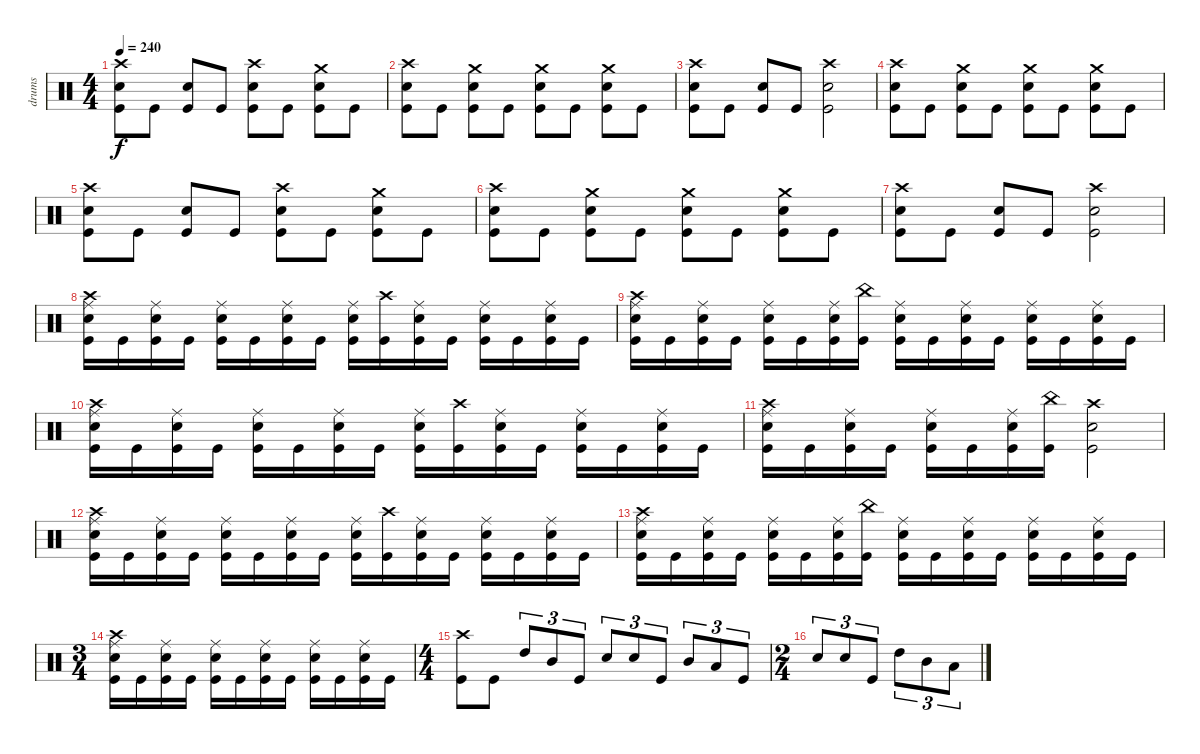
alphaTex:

\track ("drums" "drums") {instrument percussion}
\staff {score}
\articulation defaults
\ts (4 4)
\tempo 240
\clef neutral
\ks c
("Crash high (hit)" "Electric Snare (hit)" "Kick (hit)").8{dy f} "Kick (hit)".8 ("Electric Snare (hit)" "Kick (hit)").8 "Kick (hit)".8 ("Crash high (hit)" "Electric Snare (hit)" "Kick (hit)").8 "Kick (hit)".8 ("Crash medium (hit)" "Electric Snare (hit)" "Kick (hit)").8 "Kick (hit)".8 |
("Crash high (hit)" "Electric Snare (hit)" "Kick (hit)").8 "Kick (hit)".8 ("Crash medium (hit)" "Electric Snare (hit)" "Kick (hit)").8 "Kick (hit)".8 ("Crash medium (hit)" "Electric Snare (hit)" "Kick (hit)").8 "Kick (hit)".8 ("Crash medium (hit)" "Electric Snare (hit)" "Kick (hit)").8 "Kick (hit)".8 |
("Crash high (hit)" "Electric Snare (hit)" "Kick (hit)").8 "Kick (hit)".8 ("Electric Snare (hit)" "Kick (hit)").8 "Kick (hit)".8 ("Crash high (hit)" "Electric Snare (hit)" "Kick (hit)").2 |
("Crash high (hit)" "Electric Snare (hit)" "Kick (hit)").8 "Kick (hit)".8 ("Crash medium (hit)" "Electric Snare (hit)" "Kick (hit)").8 "Kick (hit)".8 ("Crash medium (hit)" "Electric Snare (hit)" "Kick (hit)").8 "Kick (hit)".8 ("Crash medium (hit)" "Electric Snare (hit)" "Kick (hit)").8 "Kick (hit)".8 |
("Crash high (hit)" "Electric Snare (hit)" "Kick (hit)").8 "Kick (hit)".8 ("Electric Snare (hit)" "Kick (hit)").8 "Kick (hit)".8 ("Crash high (hit)" "Electric Snare (hit)" "Kick (hit)").8 "Kick (hit)".8 ("Crash medium (hit)" "Electric Snare (hit)" "Kick (hit)").8 "Kick (hit)".8 |
("Crash high (hit)" "Electric Snare (hit)" "Kick (hit)").8 "Kick (hit)".8 ("Crash medium (hit)" "Electric Snare (hit)" "Kick (hit)").8 "Kick (hit)".8 ("Crash medium (hit)" "Electric Snare (hit)" "Kick (hit)").8 "Kick (hit)".8 ("Crash medium (hit)" "Electric Snare (hit)" "Kick (hit)").8 "Kick (hit)".8 |
("Crash high (hit)" "Electric Snare (hit)" "Kick (hit)").8 "Kick (hit)".8 ("Electric Snare (hit)" "Kick (hit)").8 "Kick (hit)".8 ("Crash high (hit)" "Electric Snare (hit)" "Kick (hit)").2 |
("Crash high (hit)" "Ride (middle)" "Electric Snare (hit)" "Kick (hit)").16 "Kick (hit)".16 ("Ride (middle)" "Electric Snare (hit)" "Kick (hit)").16 "Kick (hit)".16 ("Ride (middle)" "Electric Snare (hit)" "Kick (hit)").16 "Kick (hit)".16 ("Ride (middle)" "Electric Snare (hit)" "Kick (hit)").16 "Kick (hit)".16 ("Ride (middle)" "Electric Snare (hit)" "Kick (hit)").16 ("Crash high (hit)" "Kick (hit)").16 ("Ride (middle)" "Electric Snare (hit)" "Kick (hit)").16 "Kick (hit)".16 ("Ride (middle)" "Electric Snare (hit)" "Kick (hit)").16 "Kick (hit)".16 ("Ride (middle)" "Electric Snare (hit)" "Kick (hit)").16 "Kick (hit)".16 |
("Crash high (hit)" "Ride (middle)" "Electric Snare (hit)" "Kick (hit)").16 "Kick (hit)".16 ("Ride (middle)" "Electric Snare (hit)" "Kick (hit)").16 "Kick (hit)".16 ("Ride (middle)" "Electric Snare (hit)" "Kick (hit)").16 "Kick (hit)".16 ("Ride (middle)" "Electric Snare (hit)" "Kick (hit)").16 ("China (hit)" "Kick (hit)").16 ("Ride (middle)" "Electric Snare (hit)" "Kick (hit)").16 "Kick (hit)".16 ("Ride (middle)" "Electric Snare (hit)" "Kick (hit)").16 "Kick (hit)".16 ("Ride (middle)" "Electric Snare (hit)" "Kick (hit)").16 "Kick (hit)".16 ("Ride (middle)" "Electric Snare (hit)" "Kick (hit)").16 "Kick (hit)".16 |
("Crash high (hit)" "Ride (middle)" "Electric Snare (hit)" "Kick (hit)").16 "Kick (hit)".16 ("Ride (middle)" "Electric Snare (hit)" "Kick (hit)").16 "Kick (hit)".16 ("Ride (middle)" "Electric Snare (hit)" "Kick (hit)").16 "Kick (hit)".16 ("Ride (middle)" "Electric Snare (hit)" "Kick (hit)").16 "Kick (hit)".16 ("Ride (middle)" "Electric Snare (hit)" "Kick (hit)").16 ("Crash high (hit)" "Kick (hit)").16 ("Ride (middle)" "Electric Snare (hit)" "Kick (hit)").16 "Kick (hit)".16 ("Ride (middle)" "Electric Snare (hit)" "Kick (hit)").16 "Kick (hit)".16 ("Ride (middle)" "Electric Snare (hit)" "Kick (hit)").16 "Kick (hit)".16 |
("Crash high (hit)" "Ride (middle)" "Electric Snare (hit)" "Kick (hit)").16 "Kick (hit)".16 ("Ride (middle)" "Electric Snare (hit)" "Kick (hit)").16 "Kick (hit)".16 ("Ride (middle)" "Electric Snare (hit)" "Kick (hit)").16 "Kick (hit)".16 ("Ride (middle)" "Electric Snare (hit)" "Kick (hit)").16 ("China (hit)" "Kick (hit)").16 ("Crash high (hit)" "Electric Snare (hit)" "Kick (hit)").2 |
("Crash high (hit)" "Ride (middle)" "Electric Snare (hit)" "Kick (hit)").16 "Kick (hit)".16 ("Ride (middle)" "Electric Snare (hit)" "Kick (hit)").16 "Kick (hit)".16 ("Ride (middle)" "Electric Snare (hit)" "Kick (hit)").16 "Kick (hit)".16 ("Ride (middle)" "Electric Snare (hit)" "Kick (hit)").16 "Kick (hit)".16 ("Ride (middle)" "Electric Snare (hit)" "Kick (hit)").16 ("Crash high (hit)" "Kick (hit)").16 ("Ride (middle)" "Electric Snare (hit)" "Kick (hit)").16 "Kick (hit)".16 ("Ride (middle)" "Electric Snare (hit)" "Kick (hit)").16 "Kick (hit)".16 ("Ride (middle)" "Electric Snare (hit)" "Kick (hit)").16 "Kick (hit)".16 |
("Crash high (hit)" "Ride (middle)" "Electric Snare (hit)" "Kick (hit)").16 "Kick (hit)".16 ("Ride (middle)" "Electric Snare (hit)" "Kick (hit)").16 "Kick (hit)".16 ("Ride (middle)" "Electric Snare (hit)" "Kick (hit)").16 "Kick (hit)".16 ("Ride (middle)" "Electric Snare (hit)" "Kick (hit)").16 ("China (hit)" "Kick (hit)").16 ("Ride (middle)" "Electric Snare (hit)" "Kick (hit)").16 "Kick (hit)".16 ("Ride (middle)" "Electric Snare (hit)" "Kick (hit)").16 "Kick (hit)".16 ("Ride (middle)" "Electric Snare (hit)" "Kick (hit)").16 "Kick (hit)".16 ("Ride (middle)" "Electric Snare (hit)" "Kick (hit)").16 "Kick (hit)".16 |
\ts (3 4)
("Crash high (hit)" "Ride (middle)" "Electric Snare (hit)" "Kick (hit)").16 "Kick (hit)".16 ("Ride (middle)" "Electric Snare (hit)" "Kick (hit)").16 "Kick (hit)".16 ("Ride (middle)" "Electric Snare (hit)" "Kick (hit)").16 "Kick (hit)".16 ("Ride (middle)" "Electric Snare (hit)" "Kick (hit)").16 "Kick (hit)".16 ("Ride (middle)" "Electric Snare (hit)" "Kick (hit)").16 "Kick (hit)".16 ("Ride (middle)" "Electric Snare (hit)" "Kick (hit)").16 "Kick (hit)".16 |
\ts (4 4)
("Crash high (hit)" "Kick (hit)").8 "Kick (hit)".8 "High Tom (hit)".8{tu (3 2)} "Mid Tom (hit)".8{tu (3 2)} "Kick (hit)".8{tu (3 2)} "Electric Snare (hit)".8{tu (3 2)} "Electric Snare (hit)".8{tu (3 2)} "Kick (hit)".8{tu (3 2)} "Mid Tom (hit)".8{tu (3 2)} "Low Tom (hit)".8{tu (3 2)} "Kick (hit)".8{tu (3 2)} |
\ts (2 4)
"Electric Snare (hit)".8{tu (3 2)} "Electric Snare (hit)".8{tu (3 2)} "Kick (hit)".8{tu (3 2)} "High Tom (hit)".8{tu (3 2)} "Mid Tom (hit)".8{tu (3 2)} "Low Tom (hit)".8{tu (3 2)}
